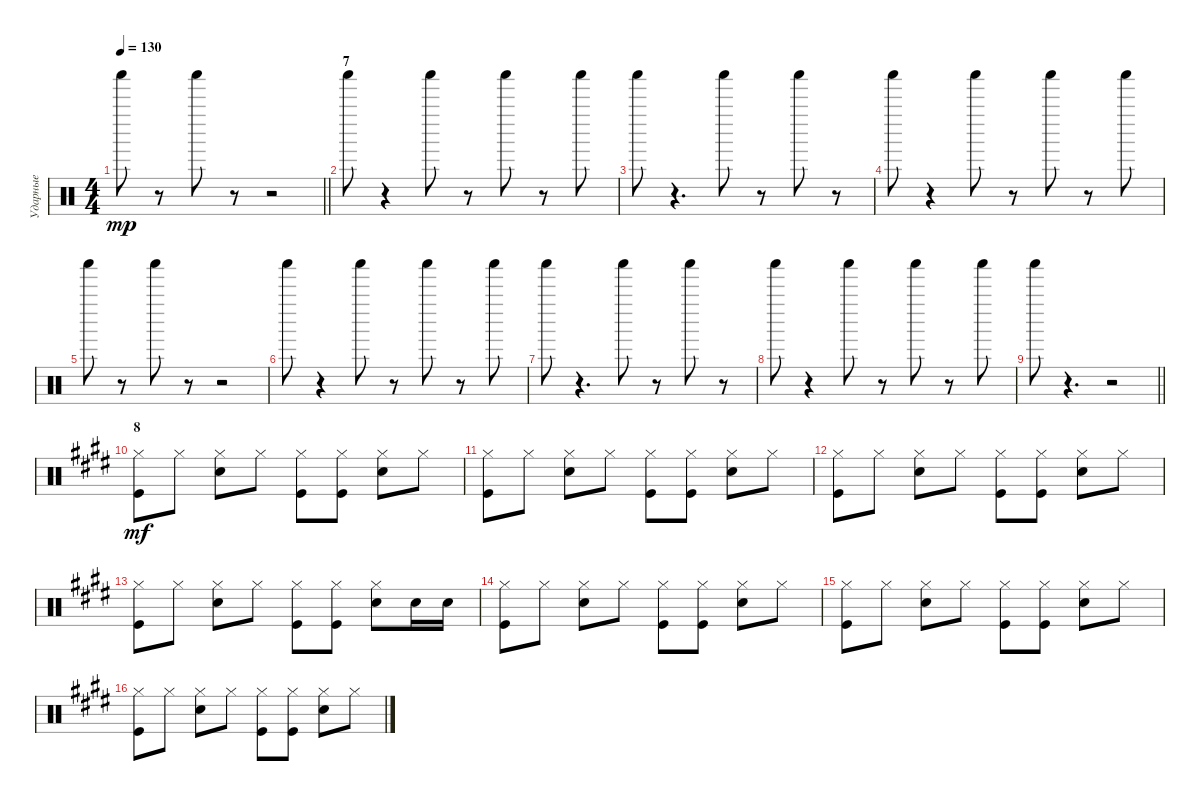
\track ("Ударные" "Ударные") {instrument percussion}
\staff {score}
\articulation defaults
\ts (4 4)
\tempo 130
\clef neutral
\barLineRight lightlight
\ks c "Shaker (hit)".8{dy mp}
r.8 "Shaker (hit)".8 r.8 r.2 |
\section ("" "7")
"Shaker (hit)".8 r.4 "Shaker (hit)".8 r.8 "Shaker (hit)".8 r.8 "Shaker (hit)".8 |
"Shaker (hit)".8 r.4{d} "Shaker (hit)".8 r.8 "Shaker (hit)".8 r.8 |
"Shaker (hit)".8 r.4 "Shaker (hit)".8 r.8 "Shaker (hit)".8 r.8 "Shaker (hit)".8 |
"Shaker (hit)".8 r.8 "Shaker (hit)".8 r.8 r.2 |
"Shaker (hit)".8 r.4 "Shaker (hit)".8 r.8 "Shaker (hit)".8 r.8 "Shaker (hit)".8 |
"Shaker (hit)".8 r.4{d} "Shaker (hit)".8 r.8 "Shaker (hit)".8 r.8 |
"Shaker (hit)".8 r.4 "Shaker (hit)".8 r.8 "Shaker (hit)".8 r.8 "Shaker (hit)".8 |
\barLineRight lightlight "Shaker (hit)".8
r.4{d} r.2 |
\section ("" "8")
\ks e
("Hi-Hat (closed)" "Kick (hit)").8{dy mf} "Hi-Hat (closed)".8 ("Hi-Hat (closed)" "Snare (hit) 2").8 "Hi-Hat (closed)".8 ("Hi-Hat (closed)" "Kick (hit)").8 ("Hi-Hat (closed)" "Kick (hit)").8 ("Hi-Hat (closed)" "Snare (hit) 2").8 "Hi-Hat (closed)".8 |
("Hi-Hat (closed)" "Kick (hit)").8 "Hi-Hat (closed)".8 ("Hi-Hat (closed)" "Snare (hit) 2").8 "Hi-Hat (closed)".8 ("Hi-Hat (closed)" "Kick (hit)").8 ("Hi-Hat (closed)" "Kick (hit)").8 ("Hi-Hat (closed)" "Snare (hit) 2").8 "Hi-Hat (closed)".8 |
("Hi-Hat (closed)" "Kick (hit)").8 "Hi-Hat (closed)".8 ("Hi-Hat (closed)" "Snare (hit) 2").8 "Hi-Hat (closed)".8 ("Hi-Hat (closed)" "Kick (hit)").8 ("Hi-Hat (closed)" "Kick (hit)").8 ("Hi-Hat (closed)" "Snare (hit) 2").8 "Hi-Hat (closed)".8 |
("Hi-Hat (closed)" "Kick (hit)").8 "Hi-Hat (closed)".8 ("Hi-Hat (closed)" "Snare (hit) 2").8 "Hi-Hat (closed)".8 ("Hi-Hat (closed)" "Kick (hit)").8 ("Hi-Hat (closed)" "Kick (hit)").8 ("Hi-Hat (closed)" "Snare (hit) 2").8 "Snare (hit) 2".16 "Snare (hit) 2".16 |
("Hi-Hat (closed)" "Kick (hit)").8 "Hi-Hat (closed)".8 ("Hi-Hat (closed)" "Snare (hit) 2").8 "Hi-Hat (closed)".8 ("Hi-Hat (closed)" "Kick (hit)").8 ("Hi-Hat (closed)" "Kick (hit)").8 ("Hi-Hat (closed)" "Snare (hit) 2").8 "Hi-Hat (closed)".8 |
("Hi-Hat (closed)" "Kick (hit)").8 "Hi-Hat (closed)".8 ("Hi-Hat (closed)" "Snare (hit) 2").8 "Hi-Hat (closed)".8 ("Hi-Hat (closed)" "Kick (hit)").8 ("Hi-Hat (closed)" "Kick (hit)").8 ("Hi-Hat (closed)" "Snare (hit) 2").8 "Hi-Hat (closed)".8 |
("Hi-Hat (closed)" "Kick (hit)").8 "Hi-Hat (closed)".8 ("Hi-Hat (closed)" "Snare (hit) 2").8 "Hi-Hat (closed)".8 ("Hi-Hat (closed)" "Kick (hit)").8 ("Hi-Hat (closed)" "Kick (hit)").8 ("Hi-Hat (closed)" "Snare (hit) 2").8 "Hi-Hat (closed)".8
